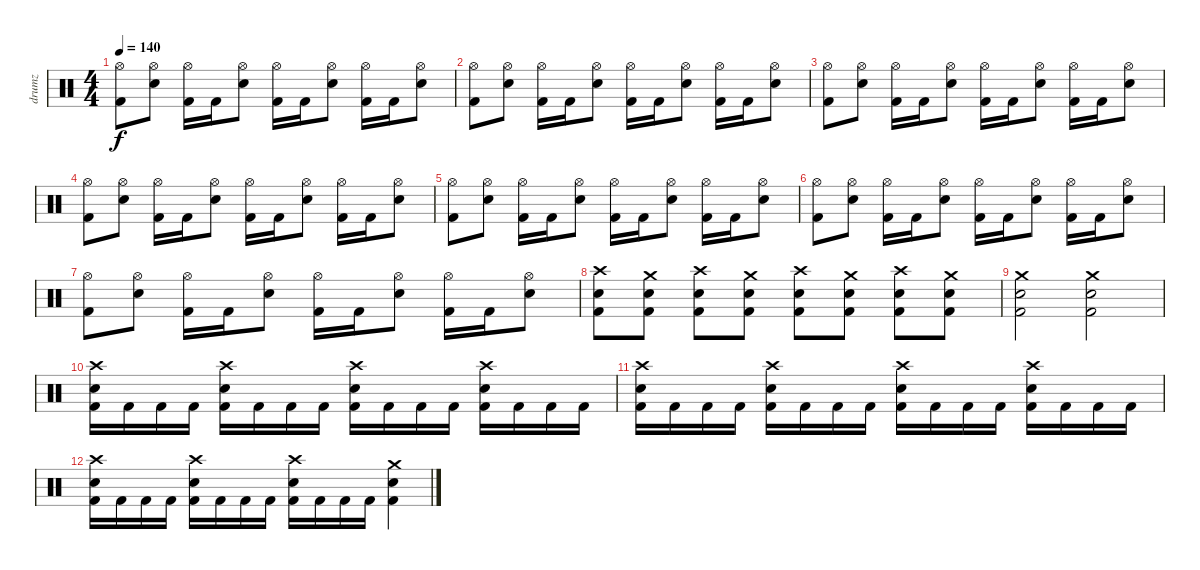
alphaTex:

\track ("drumz" "drumz") {instrument percussion}
\staff {score}
\articulation defaults
\ts (4 4)
\tempo 140
\clef neutral
\ks c
("Hi-Hat (open)" "Kick (hit) 2").8{dy f} ("Hi-Hat (open)" "Electric Snare (hit)").8 ("Hi-Hat (open)" "Kick (hit) 2").16 "Kick (hit) 2".16 ("Hi-Hat (open)" "Electric Snare (hit)").8 ("Hi-Hat (open)" "Kick (hit) 2").16 "Kick (hit) 2".16 ("Hi-Hat (open)" "Electric Snare (hit)").8 ("Hi-Hat (open)" "Kick (hit) 2").16 "Kick (hit) 2".16 ("Hi-Hat (open)" "Electric Snare (hit)").8 |
("Hi-Hat (open)" "Kick (hit) 2").8 ("Hi-Hat (open)" "Electric Snare (hit)").8 ("Hi-Hat (open)" "Kick (hit) 2").16 "Kick (hit) 2".16 ("Hi-Hat (open)" "Electric Snare (hit)").8 ("Hi-Hat (open)" "Kick (hit) 2").16 "Kick (hit) 2".16 ("Hi-Hat (open)" "Electric Snare (hit)").8 ("Hi-Hat (open)" "Kick (hit) 2").16 "Kick (hit) 2".16 ("Hi-Hat (open)" "Electric Snare (hit)").8 |
("Hi-Hat (open)" "Kick (hit) 2").8 ("Hi-Hat (open)" "Electric Snare (hit)").8 ("Hi-Hat (open)" "Kick (hit) 2").16 "Kick (hit) 2".16 ("Hi-Hat (open)" "Electric Snare (hit)").8 ("Hi-Hat (open)" "Kick (hit) 2").16 "Kick (hit) 2".16 ("Hi-Hat (open)" "Electric Snare (hit)").8 ("Hi-Hat (open)" "Kick (hit) 2").16 "Kick (hit) 2".16 ("Hi-Hat (open)" "Electric Snare (hit)").8 |
("Hi-Hat (open)" "Kick (hit) 2").8 ("Hi-Hat (open)" "Electric Snare (hit)").8 ("Hi-Hat (open)" "Kick (hit) 2").16 "Kick (hit) 2".16 ("Hi-Hat (open)" "Electric Snare (hit)").8 ("Hi-Hat (open)" "Kick (hit) 2").16 "Kick (hit) 2".16 ("Hi-Hat (open)" "Electric Snare (hit)").8 ("Hi-Hat (open)" "Kick (hit) 2").16 "Kick (hit) 2".16 ("Hi-Hat (open)" "Electric Snare (hit)").8 |
("Hi-Hat (open)" "Kick (hit) 2").8 ("Hi-Hat (open)" "Electric Snare (hit)").8 ("Hi-Hat (open)" "Kick (hit) 2").16 "Kick (hit) 2".16 ("Hi-Hat (open)" "Electric Snare (hit)").8 ("Hi-Hat (open)" "Kick (hit) 2").16 "Kick (hit) 2".16 ("Hi-Hat (open)" "Electric Snare (hit)").8 ("Hi-Hat (open)" "Kick (hit) 2").16 "Kick (hit) 2".16 ("Hi-Hat (open)" "Electric Snare (hit)").8 |
("Hi-Hat (open)" "Kick (hit) 2").8 ("Hi-Hat (open)" "Electric Snare (hit)").8 ("Hi-Hat (open)" "Kick (hit) 2").16 "Kick (hit) 2".16 ("Hi-Hat (open)" "Electric Snare (hit)").8 ("Hi-Hat (open)" "Kick (hit) 2").16 "Kick (hit) 2".16 ("Hi-Hat (open)" "Electric Snare (hit)").8 ("Hi-Hat (open)" "Kick (hit) 2").16 "Kick (hit) 2".16 ("Hi-Hat (open)" "Electric Snare (hit)").8 |
("Hi-Hat (open)" "Kick (hit) 2").8 ("Hi-Hat (open)" "Electric Snare (hit)").8 ("Hi-Hat (open)" "Kick (hit) 2").16 "Kick (hit) 2".16 ("Hi-Hat (open)" "Electric Snare (hit)").8 ("Hi-Hat (open)" "Kick (hit) 2").16 "Kick (hit) 2".16 ("Hi-Hat (open)" "Electric Snare (hit)").8 ("Hi-Hat (open)" "Kick (hit) 2").16 "Kick (hit) 2".16 ("Hi-Hat (open)" "Electric Snare (hit)").8 |
("Crash high (hit)" "Electric Snare (hit)" "Kick (hit) 2").8 ("Crash medium (hit)" "Electric Snare (hit)" "Kick (hit) 2").8 ("Crash high (hit)" "Electric Snare (hit)" "Kick (hit) 2").8 ("Crash medium (hit)" "Electric Snare (hit)" "Kick (hit) 2").8 ("Crash high (hit)" "Electric Snare (hit)" "Kick (hit) 2").8 ("Crash medium (hit)" "Electric Snare (hit)" "Kick (hit) 2").8 ("Crash high (hit)" "Electric Snare (hit)" "Kick (hit) 2").8 ("Crash medium (hit)" "Electric Snare (hit)" "Kick (hit) 2").8 |
("Crash medium (hit)" "Electric Snare (hit)" "Kick (hit) 2").2 ("Crash medium (hit)" "Electric Snare (hit)" "Kick (hit) 2").2 |
("Crash high (hit)" "Electric Snare (hit)" "Kick (hit) 2").16 "Kick (hit) 2".16 "Kick (hit) 2".16 "Kick (hit) 2".16 ("Crash high (hit)" "Electric Snare (hit)" "Kick (hit) 2").16 "Kick (hit) 2".16 "Kick (hit) 2".16 "Kick (hit) 2".16 ("Crash high (hit)" "Electric Snare (hit)" "Kick (hit) 2").16 "Kick (hit) 2".16 "Kick (hit) 2".16 "Kick (hit) 2".16 ("Crash high (hit)" "Electric Snare (hit)" "Kick (hit) 2").16 "Kick (hit) 2".16 "Kick (hit) 2".16 "Kick (hit) 2".16 |
("Crash high (hit)" "Electric Snare (hit)" "Kick (hit) 2").16 "Kick (hit) 2".16 "Kick (hit) 2".16 "Kick (hit) 2".16 ("Crash high (hit)" "Electric Snare (hit)" "Kick (hit) 2").16 "Kick (hit) 2".16 "Kick (hit) 2".16 "Kick (hit) 2".16 ("Crash high (hit)" "Electric Snare (hit)" "Kick (hit) 2").16 "Kick (hit) 2".16 "Kick (hit) 2".16 "Kick (hit) 2".16 ("Crash high (hit)" "Electric Snare (hit)" "Kick (hit) 2").16 "Kick (hit) 2".16 "Kick (hit) 2".16 "Kick (hit) 2".16 |
("Crash high (hit)" "Electric Snare (hit)" "Kick (hit) 2").16 "Kick (hit) 2".16 "Kick (hit) 2".16 "Kick (hit) 2".16 ("Crash high (hit)" "Electric Snare (hit)" "Kick (hit) 2").16 "Kick (hit) 2".16 "Kick (hit) 2".16 "Kick (hit) 2".16 ("Crash high (hit)" "Electric Snare (hit)" "Kick (hit) 2").16 "Kick (hit) 2".16 "Kick (hit) 2".16 "Kick (hit) 2".16 ("Crash medium (hit)" "Electric Snare (hit)" "Kick (hit) 2").4
